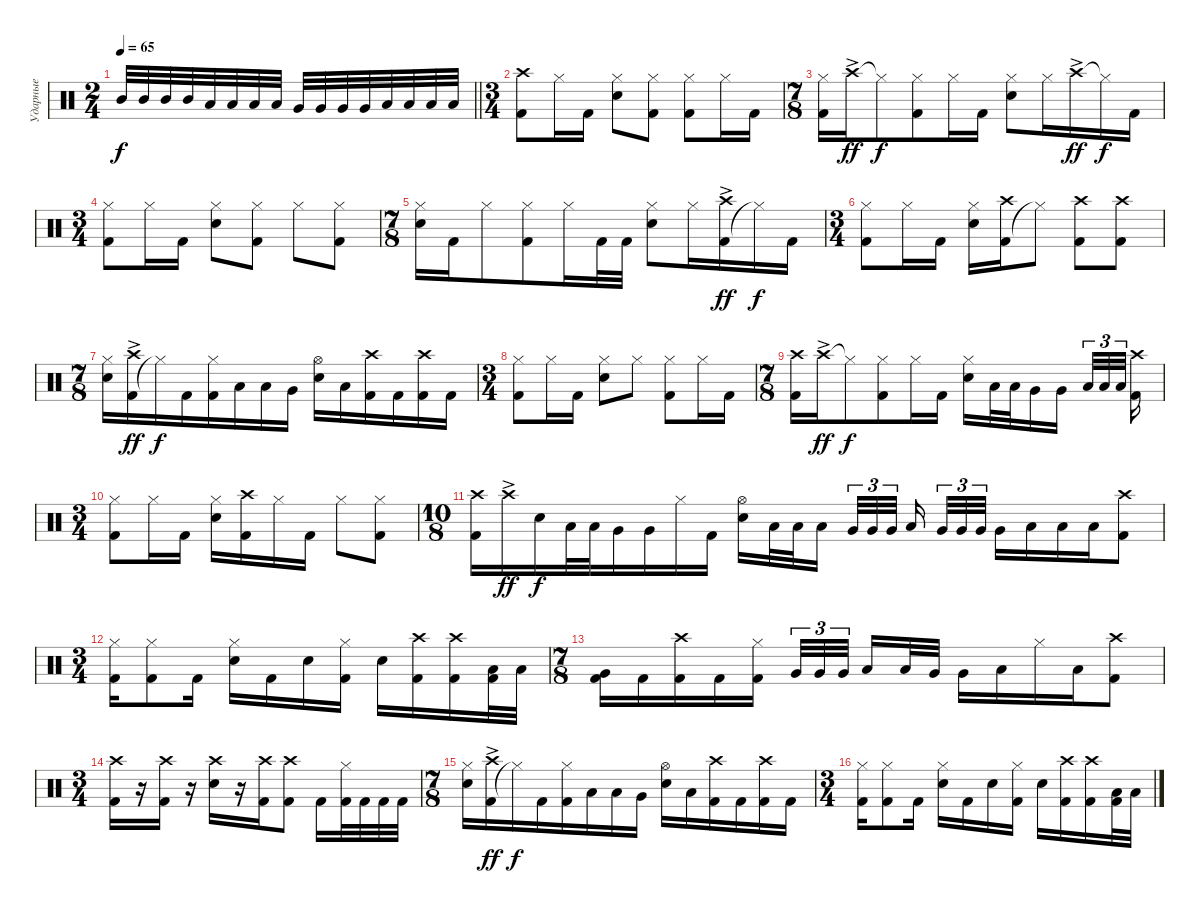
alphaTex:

\track ("Ударные" "Ударные") {instrument percussion}
\staff {score}
\articulation defaults
\ts (2 4)
\tempo 65
\clef neutral
\barLineRight lightlight
\ks c "Mid Tom (hit)".32{dy f} "Mid Tom (hit)".32 "Mid Tom (hit)".32 "Mid Tom (hit)".32 "Low Tom (hit)".32 "Low Tom (hit)".32 "Low Tom (hit)".32 "Low Tom (hit)".32 "Very Low Tom (hit)".32 "Very Low Tom (hit)".32 "Very Low Tom (hit)".32 "Very Low Tom (hit)".32 "Low Floor Tom (hit)".32 "Low Floor Tom (hit)".32 "Low Floor Tom (hit)".32 "Low Floor Tom (hit)".32
|
\ts (3 4)
("Kick (hit) 2" "Crash high (hit)").8 "Hi-Hat (closed)".16 "Kick (hit) 2".16 ("Snare (hit) 2" "Hi-Hat (closed)").8 ("Kick (hit) 2" "Hi-Hat (closed)").8 ("Kick (hit) 2" "Hi-Hat (closed)").8 "Hi-Hat (closed)".16 "Kick (hit) 2".16 |
\ts (7 8)
("Kick (hit) 2" "Hi-Hat (closed)").16 "Crash high (hit)"{ac}.16{dy ff} "Hi-Hat (closed)"{t}.8{dy f} ("Kick (hit) 2" "Hi-Hat (closed)").8 "Hi-Hat (closed)".16 "Kick (hit) 2".16 ("Snare (hit) 2" "Hi-Hat (closed)").8 "Hi-Hat (closed)".16 "Crash high (hit)"{ac}.16{dy ff} "Hi-Hat (closed)"{t}.16{dy f} "Kick (hit) 2".16 |
\ts (3 4)
("Kick (hit) 2" "Hi-Hat (closed)").8 "Hi-Hat (closed)".16 "Kick (hit) 2".16 ("Snare (hit) 2" "Hi-Hat (closed)").8 ("Kick (hit) 2" "Hi-Hat (closed)").8 "Hi-Hat (closed)".8 ("Kick (hit) 2" "Hi-Hat (closed)").8 |
\ts (7 8)
("Snare (hit) 2" "Hi-Hat (closed)").16 "Kick (hit) 2".16 "Hi-Hat (closed)".8 ("Kick (hit) 2" "Hi-Hat (closed)").8 "Hi-Hat (closed)".16 "Kick (hit) 2".32 "Kick (hit) 2".32 ("Snare (hit) 2" "Hi-Hat (closed)").8 "Hi-Hat (closed)".16 ("Kick (hit) 2" "Crash high (hit)"{ac}).16{dy ff} "Hi-Hat (closed)"{t}.16{dy f} "Kick (hit) 2".16 |
\ts (3 4)
("Kick (hit) 2" "Hi-Hat (closed)").8 "Hi-Hat (closed)".16 "Kick (hit) 2".16 ("Snare (hit) 2" "Hi-Hat (closed)").16 ("Kick (hit) 2" "Crash high (hit)").16 "Hi-Hat (closed)"{t}.8 ("Kick (hit) 2" "Crash high (hit)").8 ("Kick (hit) 2" "Crash high (hit)").8 |
\ts (7 8)
("Snare (hit) 2" "Hi-Hat (closed)").16 ("Kick (hit) 2" "Crash high (hit)"{ac}).16{dy ff} "Hi-Hat (closed)"{t}.16{dy f} "Kick (hit) 2".16 ("Kick (hit) 2" "Hi-Hat (closed)").16 "Low Tom (hit)".16 "Low Tom (hit)".16 "Very Low Tom (hit)".16 ("Snare (hit) 2" "Hi-Hat (open)").16 "Low Floor Tom (hit)".16 ("Kick (hit) 2" "Crash high (hit)").16 "Kick (hit) 2".16 ("Kick (hit) 2" "Crash high (hit)").16 "Kick (hit) 2".16 |
\ts (3 4)
("Kick (hit) 2" "Hi-Hat (closed)").8 "Hi-Hat (closed)".16 "Kick (hit) 2".16 ("Snare (hit) 2" "Hi-Hat (closed)").8 "Hi-Hat (closed)".8 ("Kick (hit) 2" "Hi-Hat (closed)").8 "Hi-Hat (closed)".16 "Kick (hit) 2".16 |
\ts (7 8)
("Kick (hit) 2" "Crash high (hit)").16 "Crash high (hit)"{ac}.16{dy ff} "Hi-Hat (closed)"{t}.8{dy f} ("Kick (hit) 2" "Hi-Hat (closed)").8 "Hi-Hat (closed)".16 "Kick (hit) 2".16 ("Snare (hit) 2" "Hi-Hat (closed)").16 "Low Tom (hit)".32 "Low Tom (hit)".32 "Very Low Tom (hit)".16 "Very Low Tom (hit)".16 "Low Floor Tom (hit)".32{tu (3 2)} "Low Floor Tom (hit)".32{tu (3 2)} "Low Floor Tom (hit)".32{tu (3 2) beam splitsecondary} ("Kick (hit) 2" "Crash high (hit)").16 |
\ts (3 4)
("Kick (hit) 2" "Hi-Hat (closed)").8 "Hi-Hat (closed)".16 "Kick (hit) 2".16 ("Snare (hit) 2" "Hi-Hat (closed)").16 ("Kick (hit) 2" "Crash high (hit)").16 "Hi-Hat (closed)".16 "Kick (hit) 2".16 "Hi-Hat (closed)".8 ("Kick (hit) 2" "Hi-Hat (closed)").8 |
\ts (10 8)
("Kick (hit) 2" "Crash high (hit)").16 "Crash high (hit)"{ac}.16{dy ff} "Snare (hit) 2".16{dy f} "Low Tom (hit)".32 "Low Tom (hit)".32 "Very Low Tom (hit)".16 "Very Low Tom (hit)".16 "Hi-Hat (closed)".16 "Kick (hit) 2".16 ("Snare (hit) 2" "Hi-Hat (open)").16 "Low Tom (hit)".32 "Low Tom (hit)".32 "Low Tom (hit)".16{beam splitsecondary} "Very Low Tom (hit)".32{tu (3 2)} "Very Low Tom (hit)".32{tu (3 2)} "Very Low Tom (hit)".32{tu (3 2)} "Low Floor Tom (hit)".16{beam splitsecondary} "Very Low Tom (hit)".32{tu (3 2)} "Very Low Tom (hit)".32{tu (3 2)} "Very Low Tom (hit)".32{tu (3 2)} "Very Low Tom (hit)".16 "Low Floor Tom (hit)".16 "Low Floor Tom (hit)".16 "Low Floor Tom (hit)".16 ("Kick (hit) 2" "Crash high (hit)").8 |
\ts (3 4)
("Kick (hit) 2" "Hi-Hat (closed)").16 ("Kick (hit) 2" "Hi-Hat (closed)").8 "Kick (hit) 2".16 ("Snare (hit) 2" "Hi-Hat (closed)").16 "Kick (hit) 2".16 "Snare (hit) 2".16 ("Kick (hit) 2" "Hi-Hat (closed)").16 "Snare (hit) 2".16 ("Kick (hit) 2" "Crash high (hit)").16 ("Kick (hit) 2" "Crash high (hit)").16 ("Kick (hit) 2" "Low Tom (hit)").32 "Low Tom (hit)".32 |
\ts (7 8)
("Kick (hit) 2" "Very Low Tom (hit)").16 "Kick (hit) 2".16 ("Kick (hit) 2" "Crash high (hit)").16 "Kick (hit) 2".16 ("Kick (hit) 2" "Hi-Hat (closed)").16{beam splitsecondary} "Very Low Tom (hit)".32{tu (3 2)} "Very Low Tom (hit)".32{tu (3 2)} "Very Low Tom (hit)".32{tu (3 2)} "Low Tom (hit)".16 "Low Tom (hit)".32 "Very Low Tom (hit)".32 "Very Low Tom (hit)".16 "Low Floor Tom (hit)".16 "Hi-Hat (closed)".16 "Low Floor Tom (hit)".16 ("Kick (hit) 2" "Crash high (hit)").8 |
\ts (3 4)
("Kick (hit) 2" "Crash high (hit)").16 r.16 ("Kick (hit) 2" "Crash high (hit)").16 r.16 ("Snare (hit) 2" "Crash high (hit)").16 r.16 ("Kick (hit) 2" "Crash high (hit)").16 ("Kick (hit) 2" "Crash high (hit)").8 "Kick (hit) 2".16 ("Kick (hit) 2" "Hi-Hat (closed)").32 "Kick (hit) 2".32 "Kick (hit) 2".32 "Kick (hit) 2".32 |
\ts (7 8)
("Snare (hit) 2" "Hi-Hat (closed)").16 ("Kick (hit) 2" "Crash high (hit)"{ac}).16{dy ff} "Hi-Hat (closed)"{t}.16{dy f} "Kick (hit) 2".16 ("Kick (hit) 2" "Hi-Hat (closed)").16 "Low Tom (hit)".16 "Low Tom (hit)".16 "Very Low Tom (hit)".16 ("Snare (hit) 2" "Hi-Hat (open)").16 "Low Floor Tom (hit)".16 ("Kick (hit) 2" "Crash high (hit)").16 "Kick (hit) 2".16 ("Kick (hit) 2" "Crash high (hit)").16 "Kick (hit) 2".16 |
\ts (3 4)
("Kick (hit) 2" "Hi-Hat (closed)").16 ("Kick (hit) 2" "Hi-Hat (closed)").8 "Kick (hit) 2".16 ("Snare (hit) 2" "Hi-Hat (closed)").16 "Kick (hit) 2".16 "Snare (hit) 2".16 ("Kick (hit) 2" "Hi-Hat (closed)").16 "Snare (hit) 2".16 ("Kick (hit) 2" "Crash high (hit)").16 ("Kick (hit) 2" "Crash high (hit)").16 ("Kick (hit) 2" "Low Tom (hit)").32 "Low Tom (hit)".32
